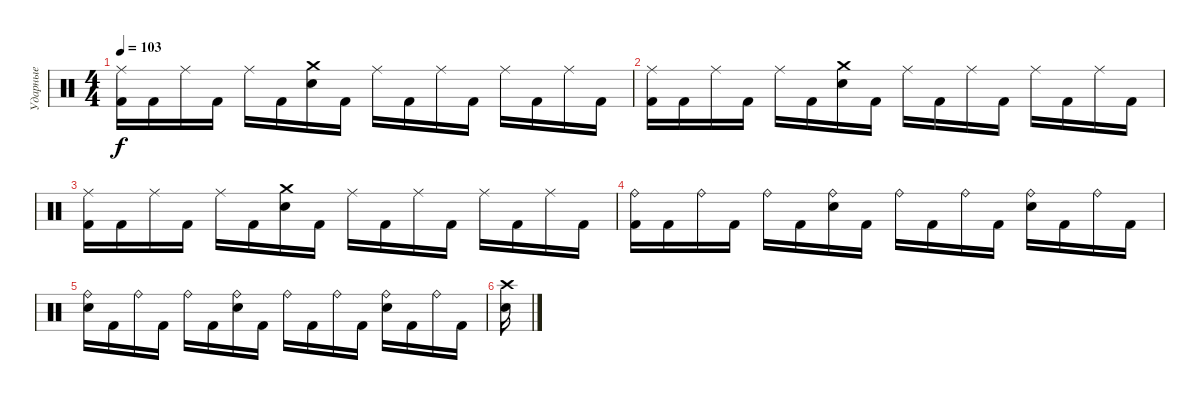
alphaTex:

\track ("Ударные" "Ударные") {instrument percussion}
\staff {score}
\articulation defaults
\ts (4 4)
\tempo 103
\clef neutral
\ks c
("Ride (middle)" "Kick (hit) 2").16{dy f} "Kick (hit) 2".16 "Ride (middle)".16 "Kick (hit) 2".16 "Ride (middle)".16 "Kick (hit) 2".16 ("Crash medium (hit)" "Electric Snare (hit)").16 "Kick (hit) 2".16 "Ride (middle)".16 "Kick (hit) 2".16 "Ride (middle)".16 "Kick (hit) 2".16 "Ride (middle)".16 "Kick (hit) 2".16 "Ride (middle)".16 "Kick (hit) 2".16 |
("Ride (middle)" "Kick (hit) 2").16 "Kick (hit) 2".16 "Ride (middle)".16 "Kick (hit) 2".16 "Ride (middle)".16 "Kick (hit) 2".16 ("Crash medium (hit)" "Electric Snare (hit)").16 "Kick (hit) 2".16 "Ride (middle)".16 "Kick (hit) 2".16 "Ride (middle)".16 "Kick (hit) 2".16 "Ride (middle)".16 "Kick (hit) 2".16 "Ride (middle)".16 "Kick (hit) 2".16 |
("Ride (middle)" "Kick (hit) 2").16 "Kick (hit) 2".16 "Ride (middle)".16 "Kick (hit) 2".16 "Ride (middle)".16 "Kick (hit) 2".16 ("Crash medium (hit)" "Electric Snare (hit)").16 "Kick (hit) 2".16 "Ride (middle)".16 "Kick (hit) 2".16 "Ride (middle)".16 "Kick (hit) 2".16 "Ride (middle)".16 "Kick (hit) 2".16 "Ride (middle)".16 "Kick (hit) 2".16 |
("Ride (bell)" "Kick (hit) 2").16 "Kick (hit) 2".16 "Ride (bell)".16 "Kick (hit) 2".16 "Ride (bell)".16 "Kick (hit) 2".16 ("Ride (bell)" "Electric Snare (hit)").16 "Kick (hit) 2".16 "Ride (bell)".16 "Kick (hit) 2".16 "Ride (bell)".16 "Kick (hit) 2".16 ("Ride (bell)" "Electric Snare (hit)").16 "Kick (hit) 2".16 "Ride (bell)".16 "Kick (hit) 2".16 |
("Ride (bell)" "Electric Snare (hit)").16 "Kick (hit) 2".16 "Ride (bell)".16 "Kick (hit) 2".16 "Ride (bell)".16 "Kick (hit) 2".16 ("Ride (bell)" "Electric Snare (hit)").16 "Kick (hit) 2".16 "Ride (bell)".16 "Kick (hit) 2".16 "Ride (bell)".16 "Kick (hit) 2".16 ("Ride (bell)" "Electric Snare (hit)").16 "Kick (hit) 2".16 "Ride (bell)".16 "Kick (hit) 2".16 |
("Crash high (hit)" "Electric Snare (hit)").16
